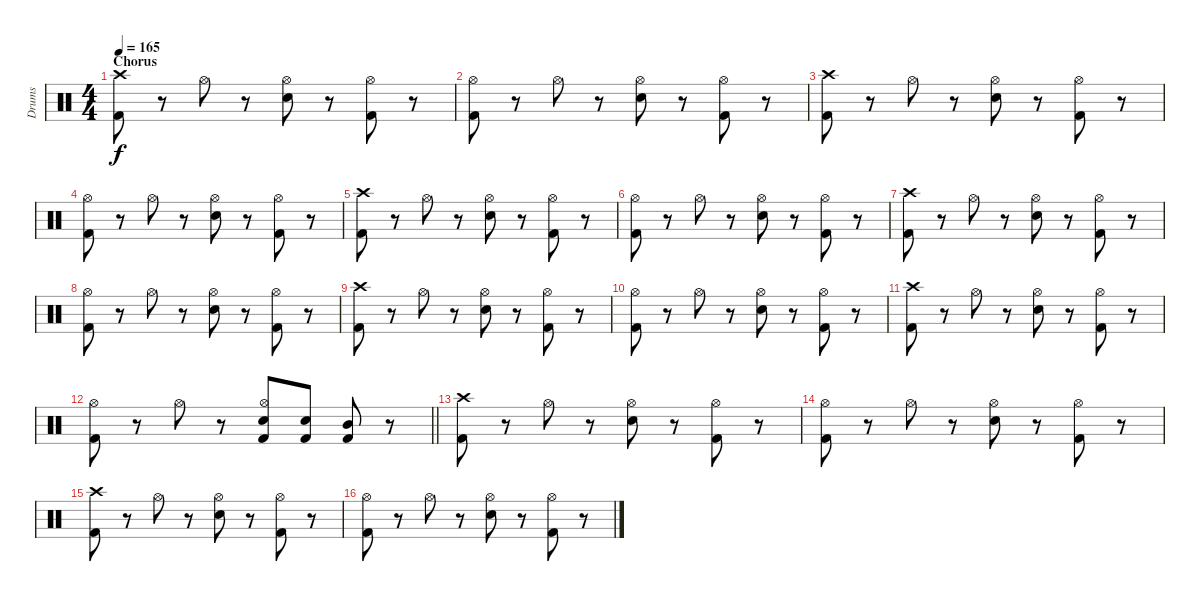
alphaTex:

\track ("Drums" "Drums") {instrument percussion}
\staff {score}
\articulation defaults
\ts (4 4)
\section ("" "Chorus")
\tempo 165
\clef neutral
\ks c
("Crash high (hit)" "Kick (hit) 2").8{dy f} r.8 "Hi-Hat (open)".8 r.8 ("Hi-Hat (open)" "Electric Snare (hit)").8 r.8 ("Hi-Hat (open)" "Kick (hit) 2").8 r.8 |
("Hi-Hat (open)" "Kick (hit) 2").8 r.8 "Hi-Hat (open)".8 r.8 ("Hi-Hat (open)" "Electric Snare (hit)").8 r.8 ("Hi-Hat (open)" "Kick (hit) 2").8 r.8 |
("Crash high (hit)" "Kick (hit) 2").8 r.8 "Hi-Hat (open)".8 r.8 ("Hi-Hat (open)" "Electric Snare (hit)").8 r.8 ("Hi-Hat (open)" "Kick (hit) 2").8 r.8 |
("Hi-Hat (open)" "Kick (hit) 2").8 r.8 "Hi-Hat (open)".8 r.8 ("Hi-Hat (open)" "Electric Snare (hit)").8 r.8 ("Hi-Hat (open)" "Kick (hit) 2").8 r.8 |
("Crash high (hit)" "Kick (hit) 2").8 r.8 "Hi-Hat (open)".8 r.8 ("Hi-Hat (open)" "Electric Snare (hit)").8 r.8 ("Hi-Hat (open)" "Kick (hit) 2").8 r.8 |
("Hi-Hat (open)" "Kick (hit) 2").8 r.8 "Hi-Hat (open)".8 r.8 ("Hi-Hat (open)" "Electric Snare (hit)").8 r.8 ("Hi-Hat (open)" "Kick (hit) 2").8 r.8 |
("Crash high (hit)" "Kick (hit) 2").8 r.8 "Hi-Hat (open)".8 r.8 ("Hi-Hat (open)" "Electric Snare (hit)").8 r.8 ("Hi-Hat (open)" "Kick (hit) 2").8 r.8 |
("Hi-Hat (open)" "Kick (hit) 2").8 r.8 "Hi-Hat (open)".8 r.8 ("Hi-Hat (open)" "Electric Snare (hit)").8 r.8 ("Hi-Hat (open)" "Kick (hit) 2").8 r.8 |
("Crash high (hit)" "Kick (hit) 2").8 r.8 "Hi-Hat (open)".8 r.8 ("Hi-Hat (open)" "Electric Snare (hit)").8 r.8 ("Hi-Hat (open)" "Kick (hit) 2").8 r.8 |
("Hi-Hat (open)" "Kick (hit) 2").8 r.8 "Hi-Hat (open)".8 r.8 ("Hi-Hat (open)" "Electric Snare (hit)").8 r.8 ("Hi-Hat (open)" "Kick (hit) 2").8 r.8 |
("Crash high (hit)" "Kick (hit) 2").8 r.8 "Hi-Hat (open)".8 r.8 ("Hi-Hat (open)" "Electric Snare (hit)").8 r.8 ("Hi-Hat (open)" "Kick (hit) 2").8 r.8 |
\barLineRight lightlight
("Hi-Hat (open)" "Kick (hit) 2").8 r.8 "Hi-Hat (open)".8 r.8 ("Hi-Hat (open)" "Electric Snare (hit)" "Kick (hit) 2").8 ("Electric Snare (hit)" "Kick (hit) 2").8 ("Mid Tom (hit)" "Kick (hit) 2").8 r.8 |
("Crash high (hit)" "Kick (hit) 2").8 r.8 "Hi-Hat (open)".8 r.8 ("Hi-Hat (open)" "Electric Snare (hit)").8 r.8 ("Hi-Hat (open)" "Kick (hit) 2").8 r.8 |
("Hi-Hat (open)" "Kick (hit) 2").8 r.8 "Hi-Hat (open)".8 r.8 ("Hi-Hat (open)" "Electric Snare (hit)").8 r.8 ("Hi-Hat (open)" "Kick (hit) 2").8 r.8 |
("Crash high (hit)" "Kick (hit) 2").8 r.8 "Hi-Hat (open)".8 r.8 ("Hi-Hat (open)" "Electric Snare (hit)").8 r.8 ("Hi-Hat (open)" "Kick (hit) 2").8 r.8 |
("Hi-Hat (open)" "Kick (hit) 2").8 r.8 "Hi-Hat (open)".8 r.8 ("Hi-Hat (open)" "Electric Snare (hit)").8 r.8 ("Hi-Hat (open)" "Kick (hit) 2").8 r.8
